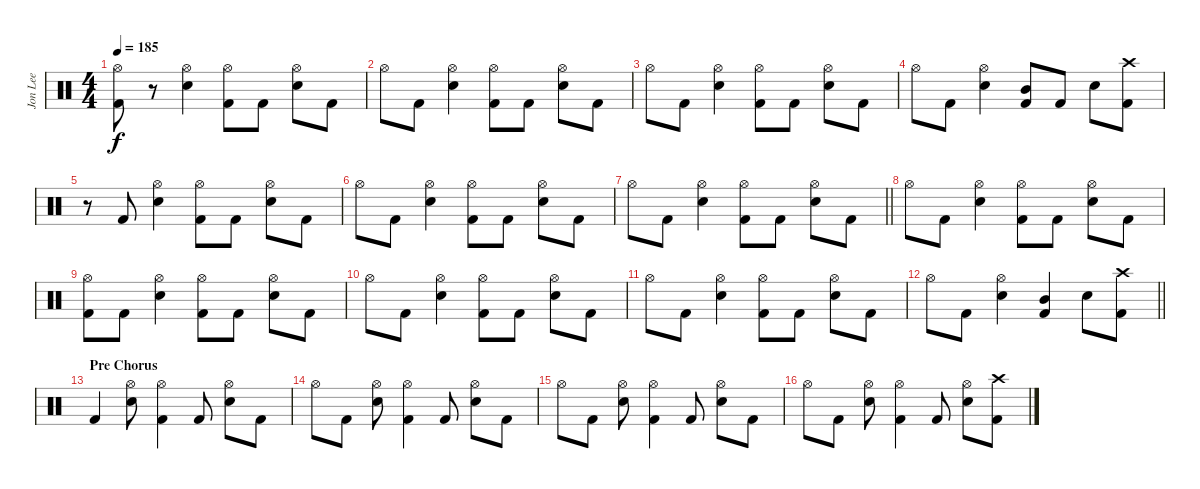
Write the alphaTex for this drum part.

\track ("Jon Lee" "Jon Lee") {instrument percussion bank 10}
\staff {score}
\articulation defaults
\ts (4 4)
\tempo 185
\clef neutral
\ks c
("Hi-Hat (open)" "Kick (hit) 2").8{dy f} r.8 ("Snare (hit) 2" "Hi-Hat (open)").4 ("Hi-Hat (open)" "Kick (hit) 2").8 "Kick (hit) 2".8 ("Snare (hit) 2" "Hi-Hat (open)").8 "Kick (hit) 2".8 |
"Hi-Hat (open)".8 "Kick (hit) 2".8 ("Snare (hit) 2" "Hi-Hat (open)").4 ("Hi-Hat (open)" "Kick (hit) 2").8 "Kick (hit) 2".8 ("Snare (hit) 2" "Hi-Hat (open)").8 "Kick (hit) 2".8 |
"Hi-Hat (open)".8 "Kick (hit) 2".8 ("Snare (hit) 2" "Hi-Hat (open)").4 ("Hi-Hat (open)" "Kick (hit) 2").8 "Kick (hit) 2".8 ("Snare (hit) 2" "Hi-Hat (open)").8 "Kick (hit) 2".8 |
"Hi-Hat (open)".8 "Kick (hit) 2".8 ("Snare (hit) 2" "Hi-Hat (open)").4 ("Kick (hit) 2" "Mid Tom (hit)").8 "Kick (hit) 2".8 "Snare (hit) 2".8 ("Kick (hit) 2" "Crash high (hit)").8 |
r.8 "Kick (hit) 2".8 ("Snare (hit) 2" "Hi-Hat (open)").4 ("Hi-Hat (open)" "Kick (hit) 2").8 "Kick (hit) 2".8 ("Snare (hit) 2" "Hi-Hat (open)").8 "Kick (hit) 2".8 |
"Hi-Hat (open)".8 "Kick (hit) 2".8 ("Snare (hit) 2" "Hi-Hat (open)").4 ("Hi-Hat (open)" "Kick (hit) 2").8 "Kick (hit) 2".8 ("Snare (hit) 2" "Hi-Hat (open)").8 "Kick (hit) 2".8 |
\barLineRight lightlight "Hi-Hat (open)".8 "Kick (hit) 2".8
("Snare (hit) 2" "Hi-Hat (open)").4 ("Hi-Hat (open)" "Kick (hit) 2").8 "Kick (hit) 2".8 ("Snare (hit) 2" "Hi-Hat (open)").8 "Kick (hit) 2".8 |
"Hi-Hat (open)".8 "Kick (hit) 2".8 ("Snare (hit) 2" "Hi-Hat (open)").4 ("Hi-Hat (open)" "Kick (hit) 2").8 "Kick (hit) 2".8 ("Snare (hit) 2" "Hi-Hat (open)").8 "Kick (hit) 2".8 |
("Hi-Hat (open)" "Kick (hit) 2").8 "Kick (hit) 2".8 ("Snare (hit) 2" "Hi-Hat (open)").4 ("Hi-Hat (open)" "Kick (hit) 2").8 "Kick (hit) 2".8 ("Snare (hit) 2" "Hi-Hat (open)").8 "Kick (hit) 2".8 |
"Hi-Hat (open)".8 "Kick (hit) 2".8 ("Snare (hit) 2" "Hi-Hat (open)").4 ("Hi-Hat (open)" "Kick (hit) 2").8 "Kick (hit) 2".8 ("Snare (hit) 2" "Hi-Hat (open)").8 "Kick (hit) 2".8 |
"Hi-Hat (open)".8 "Kick (hit) 2".8 ("Snare (hit) 2" "Hi-Hat (open)").4 ("Hi-Hat (open)" "Kick (hit) 2").8 "Kick (hit) 2".8 ("Snare (hit) 2" "Hi-Hat (open)").8 "Kick (hit) 2".8 |
\barLineRight lightlight "Hi-Hat (open)".8 "Kick (hit) 2".8
("Snare (hit) 2" "Hi-Hat (open)").4 ("Mid Tom (hit)" "Kick (hit) 2").4 "Snare (hit) 2".8 ("Kick (hit) 2" "Crash high (hit)").8 |
\section ("" "Pre Chorus")
"Kick (hit) 2".4 ("Snare (hit) 2" "Hi-Hat (open)").8 ("Kick (hit) 2" "Hi-Hat (open)").4 "Kick (hit) 2".8 ("Snare (hit) 2" "Hi-Hat (open)").8 "Kick (hit) 2".8 |
"Hi-Hat (open)".8 "Kick (hit) 2".8 ("Snare (hit) 2" "Hi-Hat (open)").8 ("Kick (hit) 2" "Hi-Hat (open)").4 "Kick (hit) 2".8 ("Snare (hit) 2" "Hi-Hat (open)").8 "Kick (hit) 2".8 |
"Hi-Hat (open)".8 "Kick (hit) 2".8 ("Snare (hit) 2" "Hi-Hat (open)").8 ("Kick (hit) 2" "Hi-Hat (open)").4 "Kick (hit) 2".8 ("Snare (hit) 2" "Hi-Hat (open)").8 "Kick (hit) 2".8 |
"Hi-Hat (open)".8 "Kick (hit) 2".8 ("Snare (hit) 2" "Hi-Hat (open)").8 ("Kick (hit) 2" "Hi-Hat (open)").4 "Kick (hit) 2".8 ("Snare (hit) 2" "Hi-Hat (open)").8 ("Kick (hit) 2" "Crash high (hit)").8
